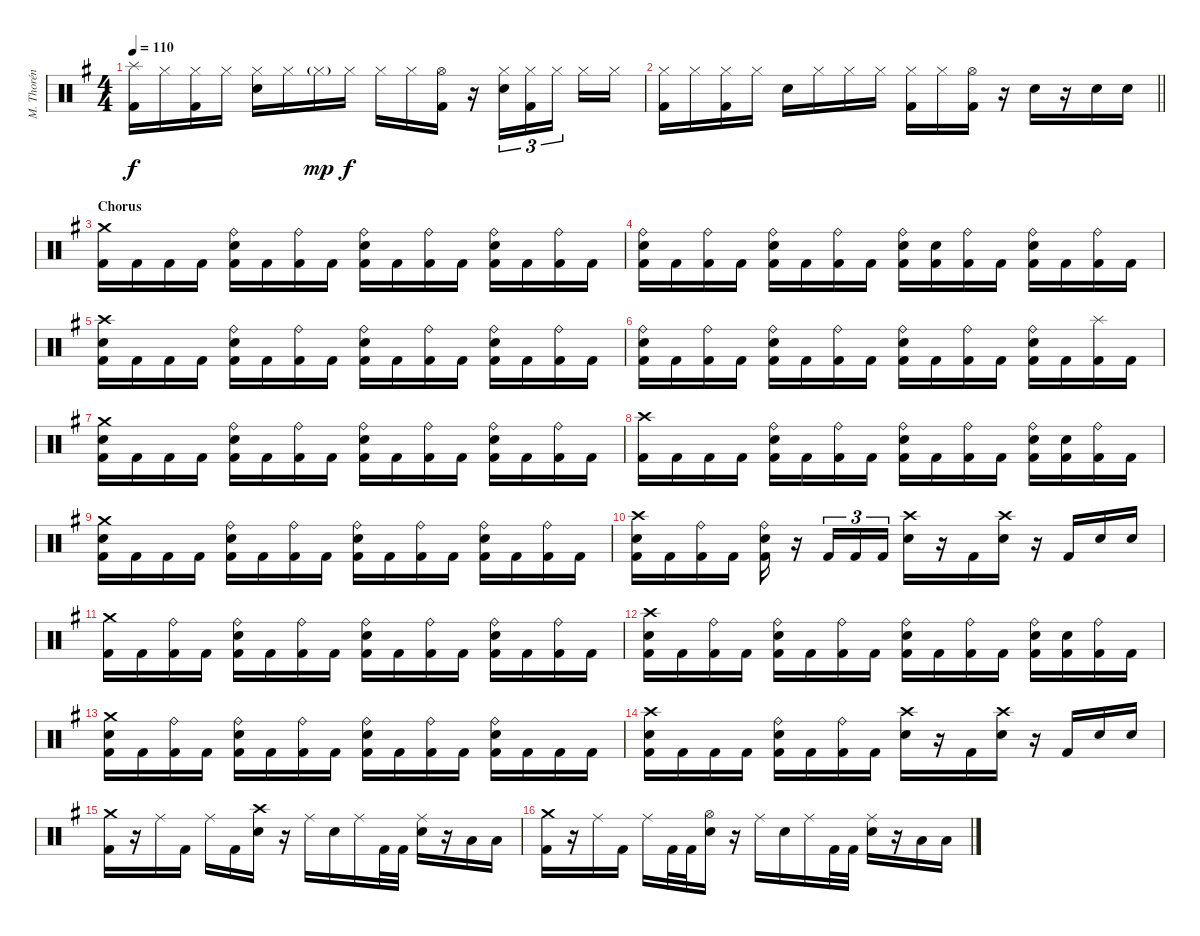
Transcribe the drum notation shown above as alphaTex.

\track ("M. Thorén (Drums)" "M. Thorén ") {instrument percussion}
\staff {score}
\articulation defaults
\ts (4 4)
\tempo 110
\clef neutral
\ks eminor
("Splash (hit)" "Kick (hit) 2").16{dy f} "Hi-Hat (closed)".16 ("Hi-Hat (closed)" "Kick (hit) 2").16 "Hi-Hat (closed)".16 ("Hi-Hat (closed)" "Electric Snare (hit)").16 "Hi-Hat (closed)".16 "Hi-Hat (closed)"{g}.16{dy mp} "Hi-Hat (closed)".16{dy f} "Hi-Hat (closed)".16 "Hi-Hat (closed)".16 ("Hi-Hat (open)" "Kick (hit) 2").16 r.16 ("Hi-Hat (closed)" "Electric Snare (hit)").16{tu (3 2)} ("Hi-Hat (closed)" "Kick (hit) 2").16{tu (3 2)} "Hi-Hat (closed)".16{tu (3 2) beam splitsecondary} "Hi-Hat (closed)".16 "Hi-Hat (closed)".16 |
\barLineRight lightlight
("Hi-Hat (closed)" "Kick (hit) 2").16 "Hi-Hat (closed)".16 ("Hi-Hat (closed)" "Kick (hit) 2").16 "Hi-Hat (closed)".16 "Electric Snare (hit)".16 "Hi-Hat (closed)".16 "Hi-Hat (closed)".16 "Hi-Hat (closed)".16 ("Hi-Hat (closed)" "Kick (hit) 2").16 "Hi-Hat (closed)".16 ("Hi-Hat (open)" "Kick (hit) 2").16 r.16 "Electric Snare (hit)".16 r.16 "Electric Snare (hit)".16 "Electric Snare (hit)".16 |
\section ("" "Chorus")
("Crash medium (hit)" "Kick (hit) 2").16 "Kick (hit) 2".16 "Kick (hit) 2".16 "Kick (hit) 2".16 ("Ride (bell)" "Electric Snare (hit)" "Kick (hit) 2").16 "Kick (hit) 2".16 ("Ride (bell)" "Kick (hit) 2").16 "Kick (hit) 2".16 ("Ride (bell)" "Electric Snare (hit)" "Kick (hit) 2").16 "Kick (hit) 2".16 ("Ride (bell)" "Kick (hit) 2").16 "Kick (hit) 2".16 ("Ride (bell)" "Electric Snare (hit)" "Kick (hit) 2").16 "Kick (hit) 2".16 ("Ride (bell)" "Kick (hit) 2").16 "Kick (hit) 2".16 |
("Ride (bell)" "Electric Snare (hit)" "Kick (hit) 2").16 "Kick (hit) 2".16 ("Ride (bell)" "Kick (hit) 2").16 "Kick (hit) 2".16 ("Ride (bell)" "Electric Snare (hit)" "Kick (hit) 2").16 "Kick (hit) 2".16 ("Ride (bell)" "Kick (hit) 2").16 "Kick (hit) 2".16 ("Ride (bell)" "Electric Snare (hit)" "Kick (hit) 2").16 ("Electric Snare (hit)" "Kick (hit) 2").16 ("Ride (bell)" "Kick (hit) 2").16 "Kick (hit) 2".16 ("Ride (bell)" "Electric Snare (hit)" "Kick (hit) 2").16 "Kick (hit) 2".16 ("Ride (bell)" "Kick (hit) 2").16 "Kick (hit) 2".16 |
("Crash high (hit)" "Electric Snare (hit)" "Kick (hit) 2").16 "Kick (hit) 2".16 "Kick (hit) 2".16 "Kick (hit) 2".16 ("Ride (bell)" "Electric Snare (hit)" "Kick (hit) 2").16 "Kick (hit) 2".16 ("Ride (bell)" "Kick (hit) 2").16 "Kick (hit) 2".16 ("Ride (bell)" "Electric Snare (hit)" "Kick (hit) 2").16 "Kick (hit) 2".16 ("Ride (bell)" "Kick (hit) 2").16 "Kick (hit) 2".16 ("Ride (bell)" "Electric Snare (hit)" "Kick (hit) 2").16 "Kick (hit) 2".16 ("Ride (bell)" "Kick (hit) 2").16 "Kick (hit) 2".16 |
("Ride (bell)" "Electric Snare (hit)" "Kick (hit) 2").16 "Kick (hit) 2".16 ("Ride (bell)" "Kick (hit) 2").16 "Kick (hit) 2".16 ("Ride (bell)" "Electric Snare (hit)" "Kick (hit) 2").16 "Kick (hit) 2".16 ("Ride (bell)" "Kick (hit) 2").16 "Kick (hit) 2".16 ("Ride (bell)" "Electric Snare (hit)" "Kick (hit) 2").16 "Kick (hit) 2".16 ("Ride (bell)" "Kick (hit) 2").16 "Kick (hit) 2".16 ("Ride (bell)" "Electric Snare (hit)" "Kick (hit) 2").16 "Kick (hit) 2".16 ("Splash (hit)" "Kick (hit) 2").16 "Kick (hit) 2".16 |
("Crash medium (hit)" "Electric Snare (hit)" "Kick (hit) 2").16 "Kick (hit) 2".16 "Kick (hit) 2".16 "Kick (hit) 2".16 ("Ride (bell)" "Electric Snare (hit)" "Kick (hit) 2").16 "Kick (hit) 2".16 ("Ride (bell)" "Kick (hit) 2").16 "Kick (hit) 2".16 ("Ride (bell)" "Electric Snare (hit)" "Kick (hit) 2").16 "Kick (hit) 2".16 ("Ride (bell)" "Kick (hit) 2").16 "Kick (hit) 2".16 ("Ride (bell)" "Electric Snare (hit)" "Kick (hit) 2").16 "Kick (hit) 2".16 ("Ride (bell)" "Kick (hit) 2").16 "Kick (hit) 2".16 |
("Crash high (hit)" "Kick (hit) 2").16 "Kick (hit) 2".16 "Kick (hit) 2".16 "Kick (hit) 2".16 ("Ride (bell)" "Electric Snare (hit)" "Kick (hit) 2").16 "Kick (hit) 2".16 ("Ride (bell)" "Kick (hit) 2").16 "Kick (hit) 2".16 ("Ride (bell)" "Electric Snare (hit)" "Kick (hit) 2").16 "Kick (hit) 2".16 ("Ride (bell)" "Kick (hit) 2").16 "Kick (hit) 2".16 ("Ride (bell)" "Electric Snare (hit)" "Kick (hit) 2").16 ("Electric Snare (hit)" "Kick (hit) 2").16 ("Ride (bell)" "Kick (hit) 2").16 "Kick (hit) 2".16 |
("Crash medium (hit)" "Electric Snare (hit)" "Kick (hit) 2").16 "Kick (hit) 2".16 "Kick (hit) 2".16 "Kick (hit) 2".16 ("Ride (bell)" "Electric Snare (hit)" "Kick (hit) 2").16 "Kick (hit) 2".16 ("Ride (bell)" "Kick (hit) 2").16 "Kick (hit) 2".16 ("Ride (bell)" "Electric Snare (hit)" "Kick (hit) 2").16 "Kick (hit) 2".16 ("Ride (bell)" "Kick (hit) 2").16 "Kick (hit) 2".16 ("Ride (bell)" "Electric Snare (hit)" "Kick (hit) 2").16 "Kick (hit) 2".16 ("Ride (bell)" "Kick (hit) 2").16 "Kick (hit) 2".16 |
("Crash high (hit)" "Electric Snare (hit)" "Kick (hit) 2").16 "Kick (hit) 2".16 ("Ride (bell)" "Kick (hit) 2").16 "Kick (hit) 2".16 ("Ride (bell)" "Electric Snare (hit)" "Kick (hit) 2").16 r.16 "Kick (hit) 2".16{tu (3 2)} "Kick (hit) 2".16{tu (3 2)} "Kick (hit) 2".16{tu (3 2)} ("Crash high (hit)" "Electric Snare (hit)").16 r.16 "Kick (hit) 2".16 ("Crash high (hit)" "Electric Snare (hit)").16 r.16 "Kick (hit) 2".16 "Electric Snare (hit)".16 "Electric Snare (hit)".16 |
("Crash medium (hit)" "Kick (hit) 2").16 "Kick (hit) 2".16 ("Ride (bell)" "Kick (hit) 2").16 "Kick (hit) 2".16 ("Ride (bell)" "Electric Snare (hit)" "Kick (hit) 2").16 "Kick (hit) 2".16 ("Ride (bell)" "Kick (hit) 2").16 "Kick (hit) 2".16 ("Ride (bell)" "Electric Snare (hit)" "Kick (hit) 2").16 "Kick (hit) 2".16 ("Ride (bell)" "Kick (hit) 2").16 "Kick (hit) 2".16 ("Ride (bell)" "Electric Snare (hit)" "Kick (hit) 2").16 "Kick (hit) 2".16 ("Ride (bell)" "Kick (hit) 2").16 "Kick (hit) 2".16 |
("Crash high (hit)" "Electric Snare (hit)" "Kick (hit) 2").16 "Kick (hit) 2".16 ("Ride (bell)" "Kick (hit) 2").16 "Kick (hit) 2".16 ("Ride (bell)" "Electric Snare (hit)" "Kick (hit) 2").16 "Kick (hit) 2".16 ("Ride (bell)" "Kick (hit) 2").16 "Kick (hit) 2".16 ("Ride (bell)" "Electric Snare (hit)" "Kick (hit) 2").16 "Kick (hit) 2".16 ("Ride (bell)" "Kick (hit) 2").16 "Kick (hit) 2".16 ("Ride (bell)" "Electric Snare (hit)" "Kick (hit) 2").16 ("Electric Snare (hit)" "Kick (hit) 2").16 ("Ride (bell)" "Kick (hit) 2").16 "Kick (hit) 2".16 |
("Crash medium (hit)" "Electric Snare (hit)" "Kick (hit) 2").16 "Kick (hit) 2".16 ("Ride (bell)" "Kick (hit) 2").16 "Kick (hit) 2".16 ("Ride (bell)" "Electric Snare (hit)" "Kick (hit) 2").16 "Kick (hit) 2".16 ("Ride (bell)" "Kick (hit) 2").16 "Kick (hit) 2".16 ("Ride (bell)" "Electric Snare (hit)" "Kick (hit) 2").16 "Kick (hit) 2".16 ("Ride (bell)" "Kick (hit) 2").16 "Kick (hit) 2".16 ("Ride (bell)" "Electric Snare (hit)" "Kick (hit) 2").16 "Kick (hit) 2".16 "Kick (hit) 2".16 "Kick (hit) 2".16 |
("Crash high (hit)" "Electric Snare (hit)" "Kick (hit) 2").16 "Kick (hit) 2".16 "Kick (hit) 2".16 "Kick (hit) 2".16 ("Ride (bell)" "Electric Snare (hit)" "Kick (hit) 2").16 "Kick (hit) 2".16 ("Ride (bell)" "Kick (hit) 2").16 "Kick (hit) 2".16 ("Crash high (hit)" "Electric Snare (hit)").16 r.16 "Kick (hit) 2".16 ("Crash high (hit)" "Electric Snare (hit)").16 r.16 "Kick (hit) 2".16 "Electric Snare (hit)".16 "Electric Snare (hit)".16 |
("Crash medium (hit)" "Kick (hit) 2").16 r.16 "Ride (middle)".16 "Kick (hit) 2".16 "Ride (middle)".16 "Kick (hit) 2".16 ("Crash high (hit)" "Electric Snare (hit)").16 r.16 "Ride (middle)".16 "Electric Snare (hit)".16 "Ride (middle)".16 "Kick (hit) 2".32 "Kick (hit) 2".32 ("Ride (middle)" "Electric Snare (hit)").16 r.16 "Low Tom (hit)".16 "Low Tom (hit)".16 |
("Crash medium (hit)" "Kick (hit) 2").16 r.16 "Ride (middle)".16 "Kick (hit) 2".16 "Ride (middle)".16 "Kick (hit) 2".32 "Kick (hit) 2".32 ("Hi-Hat (open)" "Electric Snare (hit)").16 r.16 "Ride (middle)".16 "Electric Snare (hit)".16 "Ride (middle)".16 "Kick (hit) 2".32 "Kick (hit) 2".32 ("Ride (middle)" "Electric Snare (hit)").16 r.16 "Low Tom (hit)".16 "Low Tom (hit)".16
